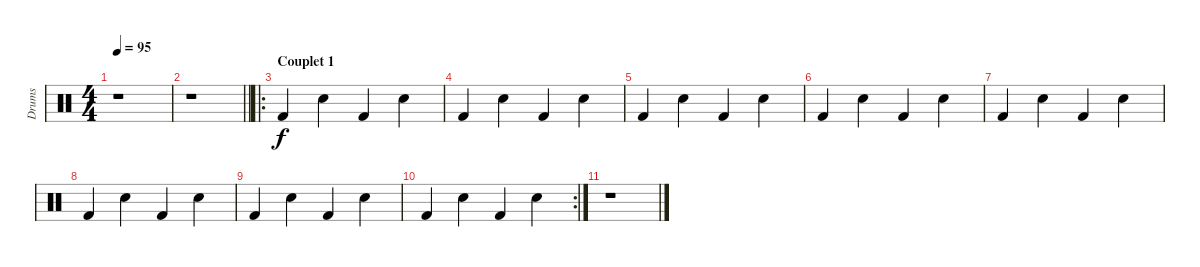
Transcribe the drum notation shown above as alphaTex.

\track ("Drums" "Drums") {instrument percussion}
\staff
\articulation defaults
\ts (4 4)
\tempo 95
\clef neutral
\ks c
r.1{dy f} |
\barLineRight lightlight
r.1 |
\ro
\section ("" "Couplet 1")
"Kick (hit) 2".4 "Electric Snare (hit)".4 "Kick (hit) 2".4 "Electric Snare (hit)".4 |
"Kick (hit) 2".4 "Electric Snare (hit)".4 "Kick (hit) 2".4 "Electric Snare (hit)".4 |
"Kick (hit) 2".4 "Electric Snare (hit)".4 "Kick (hit) 2".4 "Electric Snare (hit)".4 |
"Kick (hit) 2".4 "Electric Snare (hit)".4 "Kick (hit) 2".4 "Electric Snare (hit)".4 |
"Kick (hit) 2".4 "Electric Snare (hit)".4 "Kick (hit) 2".4 "Electric Snare (hit)".4 |
"Kick (hit) 2".4 "Electric Snare (hit)".4 "Kick (hit) 2".4 "Electric Snare (hit)".4 |
"Kick (hit) 2".4 "Electric Snare (hit)".4 "Kick (hit) 2".4 "Electric Snare (hit)".4 |
\rc 2 "Kick (hit) 2".4 "Electric Snare (hit)".4 "Kick (hit) 2".4 "Electric Snare (hit)".4
|
r.1
